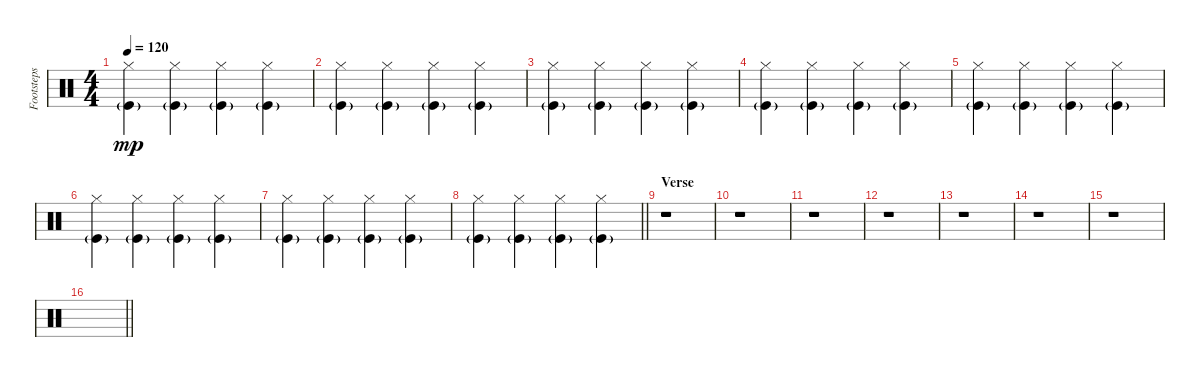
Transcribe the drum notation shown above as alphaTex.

\track ("Footsteps" "Footsteps") {instrument percussion}
\staff {score}
\articulation defaults
\ts (4 4)
\tempo 120
\clef neutral
\ks c
("Kick (hit)"{g} "Hi-Hat (closed)").4{dy mp} ("Kick (hit)"{g} "Hi-Hat (closed)").4 ("Kick (hit)"{g} "Hi-Hat (closed)").4 ("Kick (hit)"{g} "Hi-Hat (closed)").4 |
("Kick (hit)"{g} "Hi-Hat (closed)").4 ("Kick (hit)"{g} "Hi-Hat (closed)").4 ("Kick (hit)"{g} "Hi-Hat (closed)").4 ("Kick (hit)"{g} "Hi-Hat (closed)").4 |
("Kick (hit)"{g} "Hi-Hat (closed)").4 ("Kick (hit)"{g} "Hi-Hat (closed)").4 ("Kick (hit)"{g} "Hi-Hat (closed)").4 ("Kick (hit)"{g} "Hi-Hat (closed)").4 |
("Kick (hit)"{g} "Hi-Hat (closed)").4 ("Kick (hit)"{g} "Hi-Hat (closed)").4 ("Kick (hit)"{g} "Hi-Hat (closed)").4 ("Kick (hit)"{g} "Hi-Hat (closed)").4 |
("Kick (hit)"{g} "Hi-Hat (closed)").4 ("Kick (hit)"{g} "Hi-Hat (closed)").4 ("Kick (hit)"{g} "Hi-Hat (closed)").4 ("Kick (hit)"{g} "Hi-Hat (closed)").4 |
("Kick (hit)"{g} "Hi-Hat (closed)").4 ("Kick (hit)"{g} "Hi-Hat (closed)").4 ("Kick (hit)"{g} "Hi-Hat (closed)").4 ("Kick (hit)"{g} "Hi-Hat (closed)").4 |
("Kick (hit)"{g} "Hi-Hat (closed)").4 ("Kick (hit)"{g} "Hi-Hat (closed)").4 ("Kick (hit)"{g} "Hi-Hat (closed)").4 ("Kick (hit)"{g} "Hi-Hat (closed)").4 |
\barLineRight lightlight
("Kick (hit)"{g} "Hi-Hat (closed)").4 ("Kick (hit)"{g} "Hi-Hat (closed)").4 ("Kick (hit)"{g} "Hi-Hat (closed)").4 ("Kick (hit)"{g} "Hi-Hat (closed)").4 |
\section ("" "Verse")
r.1 |
r.1 |
r.1 |
r.1 |
r.1 |
r.1 |
r.1 |
\barLineRight lightlight
